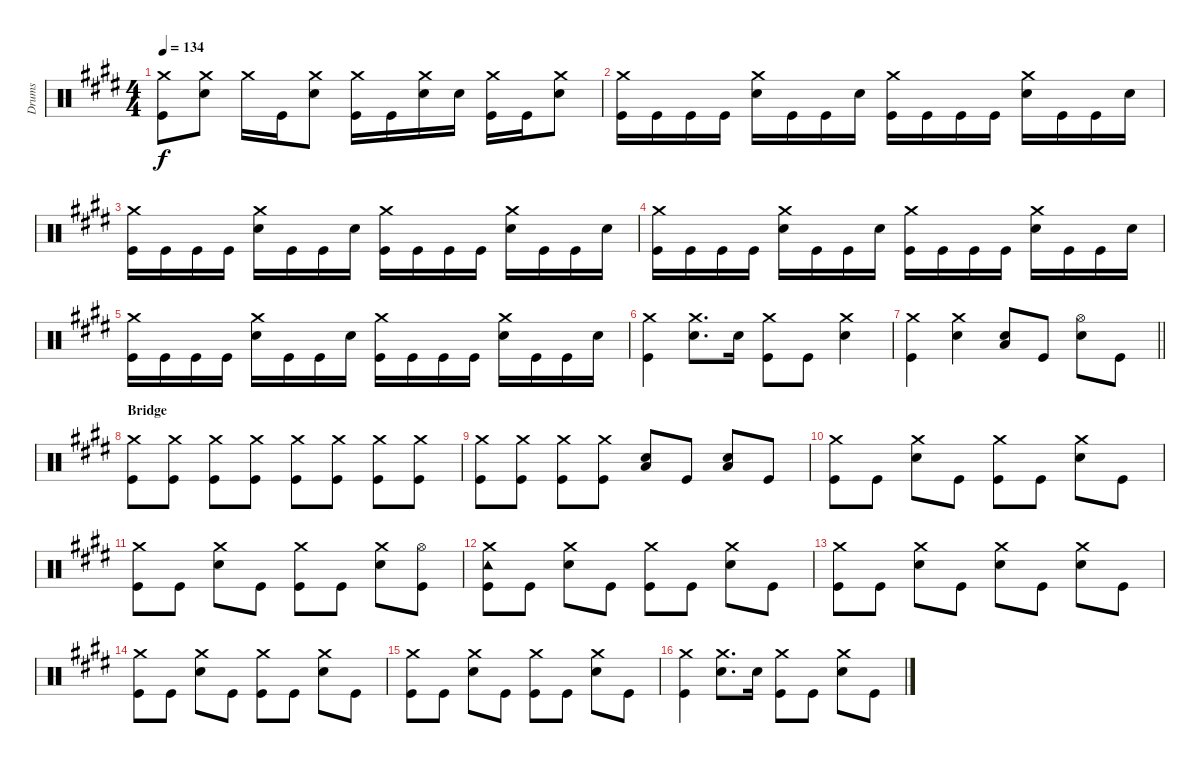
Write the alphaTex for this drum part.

\track ("Drums" "Drums") {instrument percussion}
\staff {score}
\articulation defaults
\ts (4 4)
\tempo 134
\clef neutral
\ks e
("Crash medium (hit)" "Kick (hit)").8{dy f} ("Crash medium (hit)" "Snare (hit) 2").8 "Crash medium (hit)".16 "Kick (hit)".16 ("Crash medium (hit)" "Snare (hit) 2").8 ("Crash medium (hit)" "Kick (hit)").16 "Kick (hit)".16 ("Crash medium (hit)" "Snare (hit) 2").16 "Snare (hit) 2".16 ("Crash medium (hit)" "Kick (hit)").16 "Kick (hit)".16 ("Crash medium (hit)" "Snare (hit) 2").8 |
("Crash medium (hit)" "Kick (hit)").16 "Kick (hit)".16 "Kick (hit)".16 "Kick (hit)".16 ("Crash medium (hit)" "Snare (hit) 2").16 "Kick (hit)".16 "Kick (hit)".16 "Snare (hit) 2".16 ("Crash medium (hit)" "Kick (hit)").16 "Kick (hit)".16 "Kick (hit)".16 "Kick (hit)".16 ("Crash medium (hit)" "Snare (hit) 2").16 "Kick (hit)".16 "Kick (hit)".16 "Snare (hit) 2".16 |
("Crash medium (hit)" "Kick (hit)").16 "Kick (hit)".16 "Kick (hit)".16 "Kick (hit)".16 ("Crash medium (hit)" "Snare (hit) 2").16 "Kick (hit)".16 "Kick (hit)".16 "Snare (hit) 2".16 ("Crash medium (hit)" "Kick (hit)").16 "Kick (hit)".16 "Kick (hit)".16 "Kick (hit)".16 ("Crash medium (hit)" "Snare (hit) 2").16 "Kick (hit)".16 "Kick (hit)".16 "Snare (hit) 2".16 |
("Crash medium (hit)" "Kick (hit)").16 "Kick (hit)".16 "Kick (hit)".16 "Kick (hit)".16 ("Crash medium (hit)" "Snare (hit) 2").16 "Kick (hit)".16 "Kick (hit)".16 "Snare (hit) 2".16 ("Crash medium (hit)" "Kick (hit)").16 "Kick (hit)".16 "Kick (hit)".16 "Kick (hit)".16 ("Crash medium (hit)" "Snare (hit) 2").16 "Kick (hit)".16 "Kick (hit)".16 "Snare (hit) 2".16 |
("Crash medium (hit)" "Kick (hit)").16 "Kick (hit)".16 "Kick (hit)".16 "Kick (hit)".16 ("Crash medium (hit)" "Snare (hit) 2").16 "Kick (hit)".16 "Kick (hit)".16 "Snare (hit) 2".16 ("Crash medium (hit)" "Kick (hit)").16 "Kick (hit)".16 "Kick (hit)".16 "Kick (hit)".16 ("Crash medium (hit)" "Snare (hit) 2").16 "Kick (hit)".16 "Kick (hit)".16 "Snare (hit) 2".16 |
("Crash medium (hit)" "Kick (hit)").4 ("Crash medium (hit)" "Snare (hit) 2").8{d} "Snare (hit) 2".16 ("Crash medium (hit)" "Kick (hit)").8 "Kick (hit)".8 ("Crash medium (hit)" "Snare (hit) 2").4 |
\barLineRight lightlight
("Crash medium (hit)" "Kick (hit)").4 ("Crash medium (hit)" "Snare (hit) 2").4 ("Snare (hit) 2" "Low Floor Tom (hit)").8 "Kick (hit)".8 ("Hi-Hat (open)" "Snare (hit) 2").8 "Kick (hit)".8 |
\section ("" "Bridge")
("Crash medium (hit)" "Kick (hit)").8 ("Crash medium (hit)" "Kick (hit)").8 ("Crash medium (hit)" "Kick (hit)").8 ("Crash medium (hit)" "Kick (hit)").8 ("Crash medium (hit)" "Kick (hit)").8 ("Crash medium (hit)" "Kick (hit)").8 ("Crash medium (hit)" "Kick (hit)").8 ("Crash medium (hit)" "Kick (hit)").8 |
("Crash medium (hit)" "Kick (hit)").8 ("Crash medium (hit)" "Kick (hit)").8 ("Crash medium (hit)" "Kick (hit)").8 ("Crash medium (hit)" "Kick (hit)").8 ("Snare (hit) 2" "Low Floor Tom (hit)").8 "Kick (hit)".8 ("Snare (hit) 2" "Low Floor Tom (hit)").8 "Kick (hit)".8 |
("Crash medium (hit)" "Kick (hit)").8 "Kick (hit)".8 ("Crash medium (hit)" "Snare (hit) 2").8 "Kick (hit)".8 ("Crash medium (hit)" "Kick (hit)").8 "Kick (hit)".8 ("Crash medium (hit)" "Snare (hit) 2").8 "Kick (hit)".8 |
("Crash medium (hit)" "Kick (hit)").8 "Kick (hit)".8 ("Crash medium (hit)" "Snare (hit) 2").8 "Kick (hit)".8 ("Crash medium (hit)" "Kick (hit)").8 "Kick (hit)".8 ("Crash medium (hit)" "Snare (hit) 2").8 ("Hi-Hat (open)" "Kick (hit)").8 |
("Crash medium (hit)" "Tambourine (hit)" "Kick (hit)").8 "Kick (hit)".8 ("Crash medium (hit)" "Snare (hit) 2").8 "Kick (hit)".8 ("Crash medium (hit)" "Kick (hit)").8 "Kick (hit)".8 ("Crash medium (hit)" "Snare (hit) 2").8 "Kick (hit)".8 |
("Crash medium (hit)" "Kick (hit)").8 "Kick (hit)".8 ("Crash medium (hit)" "Snare (hit) 2").8 "Kick (hit)".8 ("Crash medium (hit)" "Snare (hit) 2").8 "Kick (hit)".8 ("Crash medium (hit)" "Snare (hit) 2").8 "Kick (hit)".8 |
("Crash medium (hit)" "Kick (hit)").8 "Kick (hit)".8 ("Crash medium (hit)" "Snare (hit) 2").8 "Kick (hit)".8 ("Crash medium (hit)" "Kick (hit)").8 "Kick (hit)".8 ("Crash medium (hit)" "Snare (hit) 2").8 "Kick (hit)".8 |
("Crash medium (hit)" "Kick (hit)").8 "Kick (hit)".8 ("Crash medium (hit)" "Snare (hit) 2").8 "Kick (hit)".8 ("Crash medium (hit)" "Kick (hit)").8 "Kick (hit)".8 ("Crash medium (hit)" "Snare (hit) 2").8 "Kick (hit)".8 |
("Crash medium (hit)" "Kick (hit)").4 ("Crash medium (hit)" "Snare (hit) 2").8{d} "Snare (hit) 2".16 ("Crash medium (hit)" "Kick (hit)").8 "Kick (hit)".8 ("Crash medium (hit)" "Snare (hit) 2").8 "Kick (hit)".8
